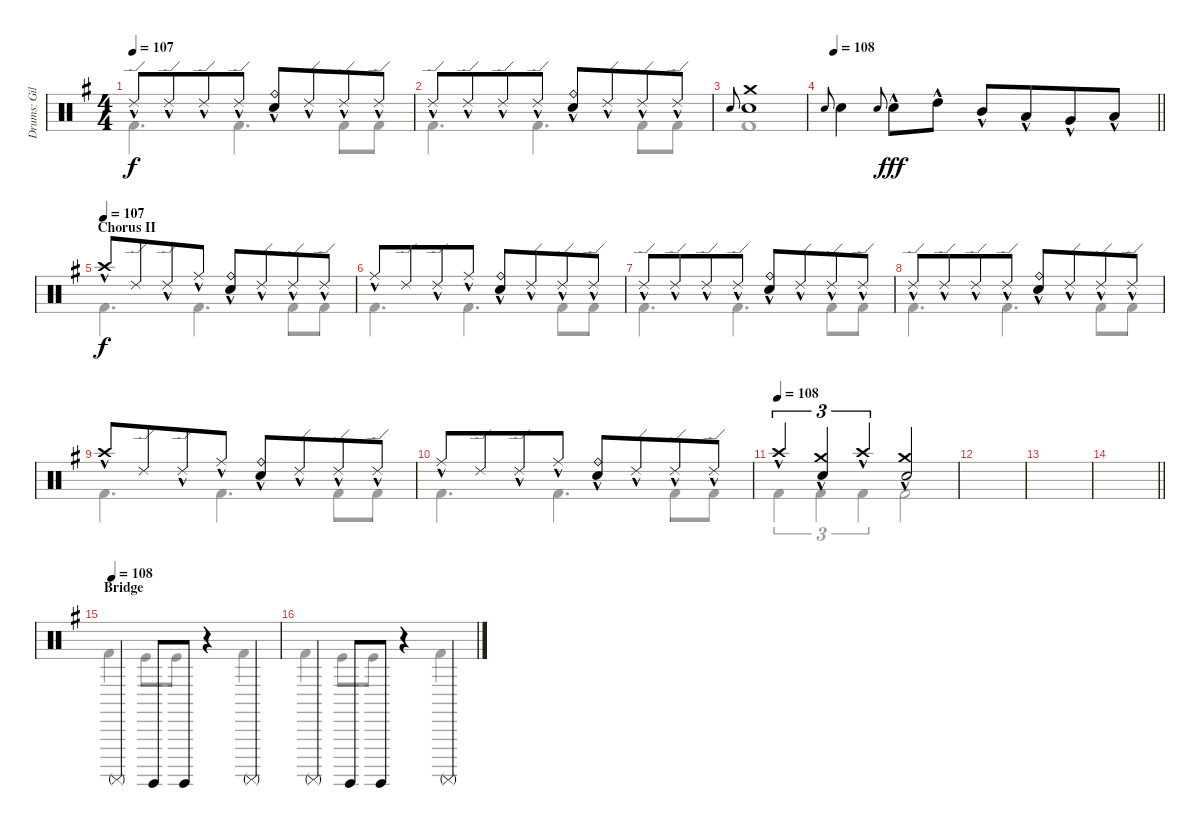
\track ("Drums: Gil" "Drums: Gil") {instrument percussion}
\staff {score}
\articulation defaults
\voice
\ts (4 4)
\tempo 107
\clef neutral
\ks g "Ride (edge) 2"{hac}.8{dy f} "Ride (edge) 2"{hac}.8{beam merge} "Ride (edge) 2"{hac}.8{beam merge} "Ride (edge) 2"{hac}.8{beam split}
("Ride (bell)"{hac} "Snare (hit) 2"{hac}).8 "Ride (edge) 2"{hac}.8{beam merge} "Ride (edge) 2"{hac}.8{beam merge} "Ride (edge) 2"{hac}.8 |
"Ride (edge) 2"{hac}.8 "Ride (edge) 2"{hac}.8{beam merge} "Ride (edge) 2"{hac}.8{beam merge} "Ride (edge) 2"{hac}.8{beam split} ("Ride (bell)"{hac} "Snare (hit) 2"{hac}).8 "Ride (edge) 2"{hac}.8{beam merge} "Ride (edge) 2"{hac}.8{beam merge} "Ride (edge) 2"{hac}.8 |
"Electric Snare (hit)".8{gr onbeat} ("Crash medium (hit)" "Snare (hit) 2").1 |
\tempo (108 0.03125)
\barLineRight lightlight "Electric Snare (hit)".8{gr onbeat} "Snare (hit) 2".4 "Snare (hit) 2".8{gr onbeat} "Snare (hit) 2"{hac}.8{dy fff} "High Tom (hit)"{hac}.8 "Mid Tom (hit)"{hac}.8 "Low Tom (hit)"{hac}.8{beam merge} "Very Low Tom (hit)"{hac}.8 "Low Floor Tom (hit)"{hac}.8
|
\section ("" "Chorus II")
\tempo (107)
"Crash high (hit)"{hac}.8{dy f} "Ride (edge) 2".8{beam merge} "Ride (edge) 2"{hac}.8{beam merge} "Ride (middle)"{hac}.8{beam split} ("Ride (bell)"{hac} "Snare (hit) 2"{hac}).8 "Ride (edge) 2"{hac}.8{beam merge} "Ride (edge) 2"{hac}.8{beam merge} "Ride (edge) 2"{hac}.8 |
"Ride (middle)"{hac}.8 "Ride (edge) 2".8{beam merge} "Ride (edge) 2"{hac}.8{beam merge} "Ride (middle)"{hac}.8{beam split} ("Ride (bell)"{hac} "Snare (hit) 2"{hac}).8 "Ride (edge) 2"{hac}.8{beam merge} "Ride (edge) 2"{hac}.8{beam merge} "Ride (edge) 2"{hac}.8 |
"Ride (edge) 2"{hac}.8 "Ride (edge) 2"{hac}.8{beam merge} "Ride (edge) 2"{hac}.8{beam merge} "Ride (edge) 2"{hac}.8{beam split} ("Ride (bell)"{hac} "Snare (hit) 2"{hac}).8 "Ride (edge) 2"{hac}.8{beam merge} "Ride (edge) 2"{hac}.8{beam merge} "Ride (edge) 2"{hac}.8 |
"Ride (edge) 2"{hac}.8 "Ride (edge) 2"{hac}.8{beam merge} "Ride (edge) 2"{hac}.8{beam merge} "Ride (edge) 2"{hac}.8{beam split} ("Ride (bell)"{hac} "Snare (hit) 2"{hac}).8 "Ride (edge) 2"{hac}.8{beam merge} "Ride (edge) 2"{hac}.8{beam merge} "Ride (edge) 2"{hac}.8 |
"Crash high (hit)"{hac}.8 "Ride (edge) 2".8{beam merge} "Ride (edge) 2"{hac}.8{beam merge} "Ride (middle)"{hac}.8{beam split} ("Ride (bell)"{hac} "Snare (hit) 2"{hac}).8 "Ride (edge) 2"{hac}.8{beam merge} "Ride (edge) 2"{hac}.8{beam merge} "Ride (edge) 2"{hac}.8 |
"Ride (middle)"{hac}.8 "Ride (edge) 2".8{beam merge} "Ride (edge) 2"{hac}.8{beam merge} "Ride (middle)"{hac}.8{beam split} ("Ride (bell)"{hac} "Snare (hit) 2"{hac}).8 "Ride (edge) 2"{hac}.8{beam merge} "Ride (edge) 2"{hac}.8{beam merge} "Ride (edge) 2"{hac}.8 |
\tempo (108)
"Crash high (hit)"{hac}.4{tu (3 2)} ("Crash medium (hit)"{hac} "Snare (hit) 2"{hac}).4{tu (3 2)} "Crash high (hit)"{hac}.4{tu (3 2)} ("Crash medium (hit)"{hac} "Snare (hit) 2"{hac}).2 |
|
|
\barLineRight lightlight
|
\section ("" "Bridge")
\tempo (108)
"Surdo (mute)".4 "Surdo (hit)".8 "Surdo (hit)".8 r.4 "Surdo (mute)".4 |
"Surdo (mute)".4 "Surdo (hit)".8 "Surdo (hit)".8 r.4 "Surdo (mute)".4
\voice
\clef neutral
\ottava regular
\simile none
\ks g "Kick (hit) 2".4{d dy f} "Kick (hit) 2".4{d} "Kick (hit) 2".8 "Kick (hit) 2".8
|
"Kick (hit) 2".4{d} "Kick (hit) 2".4{d} "Kick (hit) 2".8 "Kick (hit) 2".8 |
"Kick (hit) 2".1 |
\barLineRight lightlight
|
"Kick (hit) 2".4{d} "Kick (hit) 2".4{d} "Kick (hit) 2".8 "Kick (hit) 2".8 |
"Kick (hit) 2".4{d} "Kick (hit) 2".4{d} "Kick (hit) 2".8 "Kick (hit) 2".8 |
"Kick (hit) 2".4{d} "Kick (hit) 2".4{d} "Kick (hit) 2".8 "Kick (hit) 2".8 |
"Kick (hit) 2".4{d} "Kick (hit) 2".4{d} "Kick (hit) 2".8 "Kick (hit) 2".8 |
"Kick (hit) 2".4{d} "Kick (hit) 2".4{d} "Kick (hit) 2".8 "Kick (hit) 2".8 |
"Kick (hit) 2".4{d} "Kick (hit) 2".4{d} "Kick (hit) 2".8 "Kick (hit) 2".8 |
"Kick (hit) 2".4{tu (3 2)} "Kick (hit) 2".4{tu (3 2)} "Kick (hit) 2".4{tu (3 2)} "Kick (hit) 2".2 |
|
|
\barLineRight lightlight
|
"Kick (hit) 2".4 "Kick (hit)".8 "Kick (hit)".8 r.4 "Kick (hit) 2".4 |
"Kick (hit) 2".4 "Kick (hit)".8 "Kick (hit)".8 r.4 "Kick (hit) 2".4
